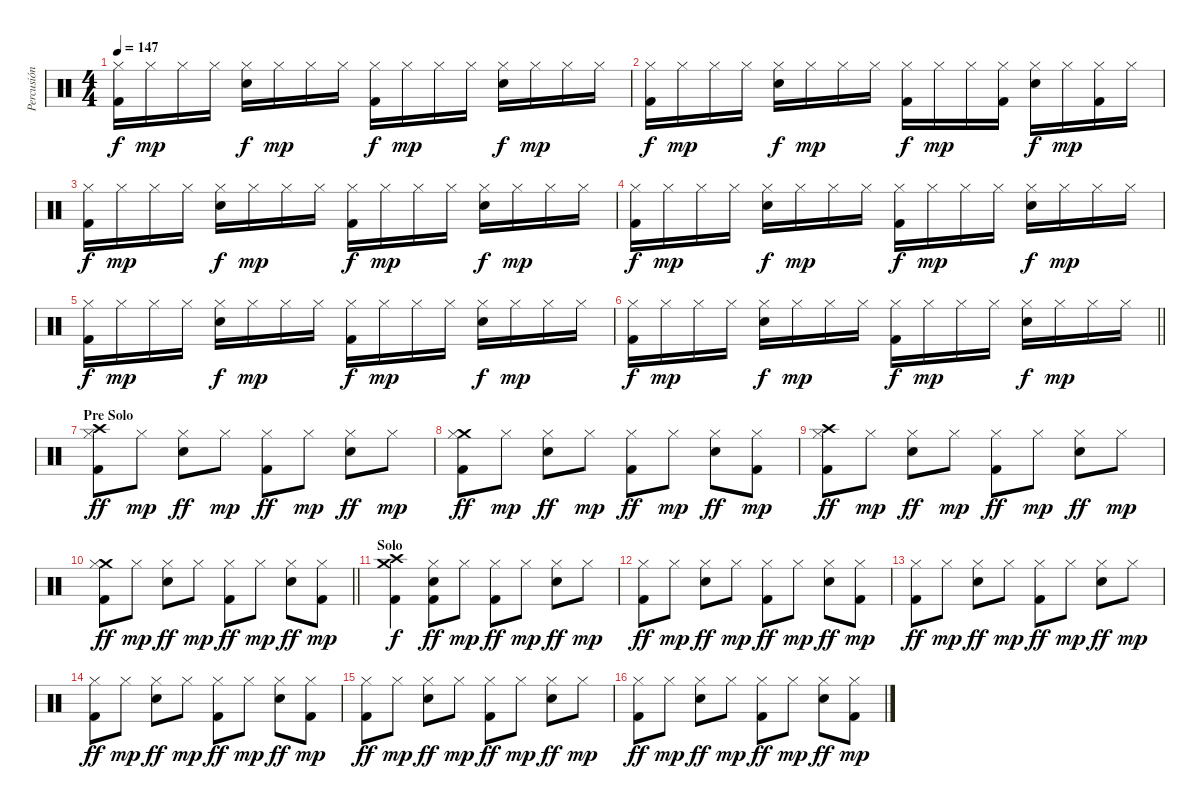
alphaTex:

\track ("Percusión" "Percusión") {instrument percussion}
\staff {score}
\articulation defaults
\ts (4 4)
\tempo 147
\clef neutral
\ks c
("Hi-Hat (closed)" "Kick (hit) 2").16{dy f} "Hi-Hat (closed)".16{dy mp} "Hi-Hat (closed)".16 "Hi-Hat (closed)".16 ("Hi-Hat (closed)" "Snare (hit) 2").16{dy f} "Hi-Hat (closed)".16{dy mp} "Hi-Hat (closed)".16 "Hi-Hat (closed)".16 ("Hi-Hat (closed)" "Kick (hit) 2").16{dy f} "Hi-Hat (closed)".16{dy mp} "Hi-Hat (closed)".16 "Hi-Hat (closed)".16 ("Hi-Hat (closed)" "Snare (hit) 2").16{dy f} "Hi-Hat (closed)".16{dy mp} "Hi-Hat (closed)".16 "Hi-Hat (closed)".16 |
("Hi-Hat (closed)" "Kick (hit) 2").16{dy f} "Hi-Hat (closed)".16{dy mp} "Hi-Hat (closed)".16 "Hi-Hat (closed)".16 ("Hi-Hat (closed)" "Snare (hit) 2").16{dy f} "Hi-Hat (closed)".16{dy mp} "Hi-Hat (closed)".16 "Hi-Hat (closed)".16 ("Hi-Hat (closed)" "Kick (hit) 2").16{dy f} "Hi-Hat (closed)".16{dy mp} "Hi-Hat (closed)".16 ("Hi-Hat (closed)" "Kick (hit) 2").16 ("Hi-Hat (closed)" "Snare (hit) 2").16{dy f} "Hi-Hat (closed)".16{dy mp} ("Hi-Hat (closed)" "Kick (hit) 2").16 "Hi-Hat (closed)".16 |
("Hi-Hat (closed)" "Kick (hit) 2").16{dy f} "Hi-Hat (closed)".16{dy mp} "Hi-Hat (closed)".16 "Hi-Hat (closed)".16 ("Hi-Hat (closed)" "Snare (hit) 2").16{dy f} "Hi-Hat (closed)".16{dy mp} "Hi-Hat (closed)".16 "Hi-Hat (closed)".16 ("Hi-Hat (closed)" "Kick (hit) 2").16{dy f} "Hi-Hat (closed)".16{dy mp} "Hi-Hat (closed)".16 "Hi-Hat (closed)".16 ("Hi-Hat (closed)" "Snare (hit) 2").16{dy f} "Hi-Hat (closed)".16{dy mp} "Hi-Hat (closed)".16 "Hi-Hat (closed)".16 |
("Hi-Hat (closed)" "Kick (hit) 2").16{dy f} "Hi-Hat (closed)".16{dy mp} "Hi-Hat (closed)".16 "Hi-Hat (closed)".16 ("Hi-Hat (closed)" "Snare (hit) 2").16{dy f} "Hi-Hat (closed)".16{dy mp} "Hi-Hat (closed)".16 "Hi-Hat (closed)".16 ("Hi-Hat (closed)" "Kick (hit) 2").16{dy f} "Hi-Hat (closed)".16{dy mp} "Hi-Hat (closed)".16 "Hi-Hat (closed)".16 ("Hi-Hat (closed)" "Snare (hit) 2").16{dy f} "Hi-Hat (closed)".16{dy mp} "Hi-Hat (closed)".16 "Hi-Hat (closed)".16 |
("Hi-Hat (closed)" "Kick (hit) 2").16{dy f} "Hi-Hat (closed)".16{dy mp} "Hi-Hat (closed)".16 "Hi-Hat (closed)".16 ("Hi-Hat (closed)" "Snare (hit) 2").16{dy f} "Hi-Hat (closed)".16{dy mp} "Hi-Hat (closed)".16 "Hi-Hat (closed)".16 ("Hi-Hat (closed)" "Kick (hit) 2").16{dy f} "Hi-Hat (closed)".16{dy mp} "Hi-Hat (closed)".16 "Hi-Hat (closed)".16 ("Hi-Hat (closed)" "Snare (hit) 2").16{dy f} "Hi-Hat (closed)".16{dy mp} "Hi-Hat (closed)".16 "Hi-Hat (closed)".16 |
\barLineRight lightlight
("Hi-Hat (closed)" "Kick (hit) 2").16{dy f} "Hi-Hat (closed)".16{dy mp} "Hi-Hat (closed)".16 "Hi-Hat (closed)".16 ("Hi-Hat (closed)" "Snare (hit) 2").16{dy f} "Hi-Hat (closed)".16{dy mp} "Hi-Hat (closed)".16 "Hi-Hat (closed)".16 ("Hi-Hat (closed)" "Kick (hit) 2").16{dy f} "Hi-Hat (closed)".16{dy mp} "Hi-Hat (closed)".16 "Hi-Hat (closed)".16 ("Hi-Hat (closed)" "Snare (hit) 2").16{dy f} "Hi-Hat (closed)".16{dy mp} "Hi-Hat (closed)".16 "Hi-Hat (closed)".16 |
\section ("" "Pre Solo")
("Crash high (hit)" "Hi-Hat (closed)" "Kick (hit) 2").8{dy ff} "Hi-Hat (closed)".8{dy mp} ("Hi-Hat (closed)" "Snare (hit) 2").8{dy ff} "Hi-Hat (closed)".8{dy mp} ("Hi-Hat (closed)" "Kick (hit) 2").8{dy ff} "Hi-Hat (closed)".8{dy mp} ("Hi-Hat (closed)" "Snare (hit) 2").8{dy ff} "Hi-Hat (closed)".8{dy mp} |
("Crash medium (hit)" "Hi-Hat (closed)" "Kick (hit) 2").8{dy ff} "Hi-Hat (closed)".8{dy mp} ("Hi-Hat (closed)" "Snare (hit) 2").8{dy ff} "Hi-Hat (closed)".8{dy mp} ("Hi-Hat (closed)" "Kick (hit) 2").8{dy ff} "Hi-Hat (closed)".8{dy mp} ("Hi-Hat (closed)" "Snare (hit) 2").8{dy ff} ("Hi-Hat (closed)" "Kick (hit) 2").8{dy mp} |
("Crash high (hit)" "Hi-Hat (closed)" "Kick (hit) 2").8{dy ff} "Hi-Hat (closed)".8{dy mp} ("Hi-Hat (closed)" "Snare (hit) 2").8{dy ff} "Hi-Hat (closed)".8{dy mp} ("Hi-Hat (closed)" "Kick (hit) 2").8{dy ff} "Hi-Hat (closed)".8{dy mp} ("Hi-Hat (closed)" "Snare (hit) 2").8{dy ff} "Hi-Hat (closed)".8{dy mp} |
\barLineRight lightlight
("Crash medium (hit)" "Hi-Hat (closed)" "Kick (hit) 2").8{dy ff} "Hi-Hat (closed)".8{dy mp} ("Hi-Hat (closed)" "Snare (hit) 2").8{dy ff} "Hi-Hat (closed)".8{dy mp} ("Hi-Hat (closed)" "Kick (hit) 2").8{dy ff} "Hi-Hat (closed)".8{dy mp} ("Hi-Hat (closed)" "Snare (hit) 2").8{dy ff} ("Hi-Hat (closed)" "Kick (hit) 2").8{dy mp} |
\section ("" "Solo")
("Crash high (hit)" "Crash medium (hit)" "Kick (hit) 2").4{dy f} ("Hi-Hat (closed)" "Snare (hit) 2" "Kick (hit) 2").8{dy ff} "Hi-Hat (closed)".8{dy mp} ("Hi-Hat (closed)" "Kick (hit) 2").8{dy ff} "Hi-Hat (closed)".8{dy mp} ("Hi-Hat (closed)" "Snare (hit) 2").8{dy ff} "Hi-Hat (closed)".8{dy mp} |
("Hi-Hat (closed)" "Kick (hit) 2").8{dy ff} "Hi-Hat (closed)".8{dy mp} ("Hi-Hat (closed)" "Snare (hit) 2").8{dy ff} "Hi-Hat (closed)".8{dy mp} ("Hi-Hat (closed)" "Kick (hit) 2").8{dy ff} "Hi-Hat (closed)".8{dy mp} ("Hi-Hat (closed)" "Snare (hit) 2").8{dy ff} ("Hi-Hat (closed)" "Kick (hit) 2").8{dy mp} |
("Hi-Hat (closed)" "Kick (hit) 2").8{dy ff} "Hi-Hat (closed)".8{dy mp} ("Hi-Hat (closed)" "Snare (hit) 2").8{dy ff} "Hi-Hat (closed)".8{dy mp} ("Hi-Hat (closed)" "Kick (hit) 2").8{dy ff} "Hi-Hat (closed)".8{dy mp} ("Hi-Hat (closed)" "Snare (hit) 2").8{dy ff} "Hi-Hat (closed)".8{dy mp} |
("Hi-Hat (closed)" "Kick (hit) 2").8{dy ff} "Hi-Hat (closed)".8{dy mp} ("Hi-Hat (closed)" "Snare (hit) 2").8{dy ff} "Hi-Hat (closed)".8{dy mp} ("Hi-Hat (closed)" "Kick (hit) 2").8{dy ff} "Hi-Hat (closed)".8{dy mp} ("Hi-Hat (closed)" "Snare (hit) 2").8{dy ff} ("Hi-Hat (closed)" "Kick (hit) 2").8{dy mp} |
("Hi-Hat (closed)" "Kick (hit) 2").8{dy ff} "Hi-Hat (closed)".8{dy mp} ("Hi-Hat (closed)" "Snare (hit) 2").8{dy ff} "Hi-Hat (closed)".8{dy mp} ("Hi-Hat (closed)" "Kick (hit) 2").8{dy ff} "Hi-Hat (closed)".8{dy mp} ("Hi-Hat (closed)" "Snare (hit) 2").8{dy ff} "Hi-Hat (closed)".8{dy mp} |
("Hi-Hat (closed)" "Kick (hit) 2").8{dy ff} "Hi-Hat (closed)".8{dy mp} ("Hi-Hat (closed)" "Snare (hit) 2").8{dy ff} "Hi-Hat (closed)".8{dy mp} ("Hi-Hat (closed)" "Kick (hit) 2").8{dy ff} "Hi-Hat (closed)".8{dy mp} ("Hi-Hat (closed)" "Snare (hit) 2").8{dy ff} ("Hi-Hat (closed)" "Kick (hit) 2").8{dy mp}
